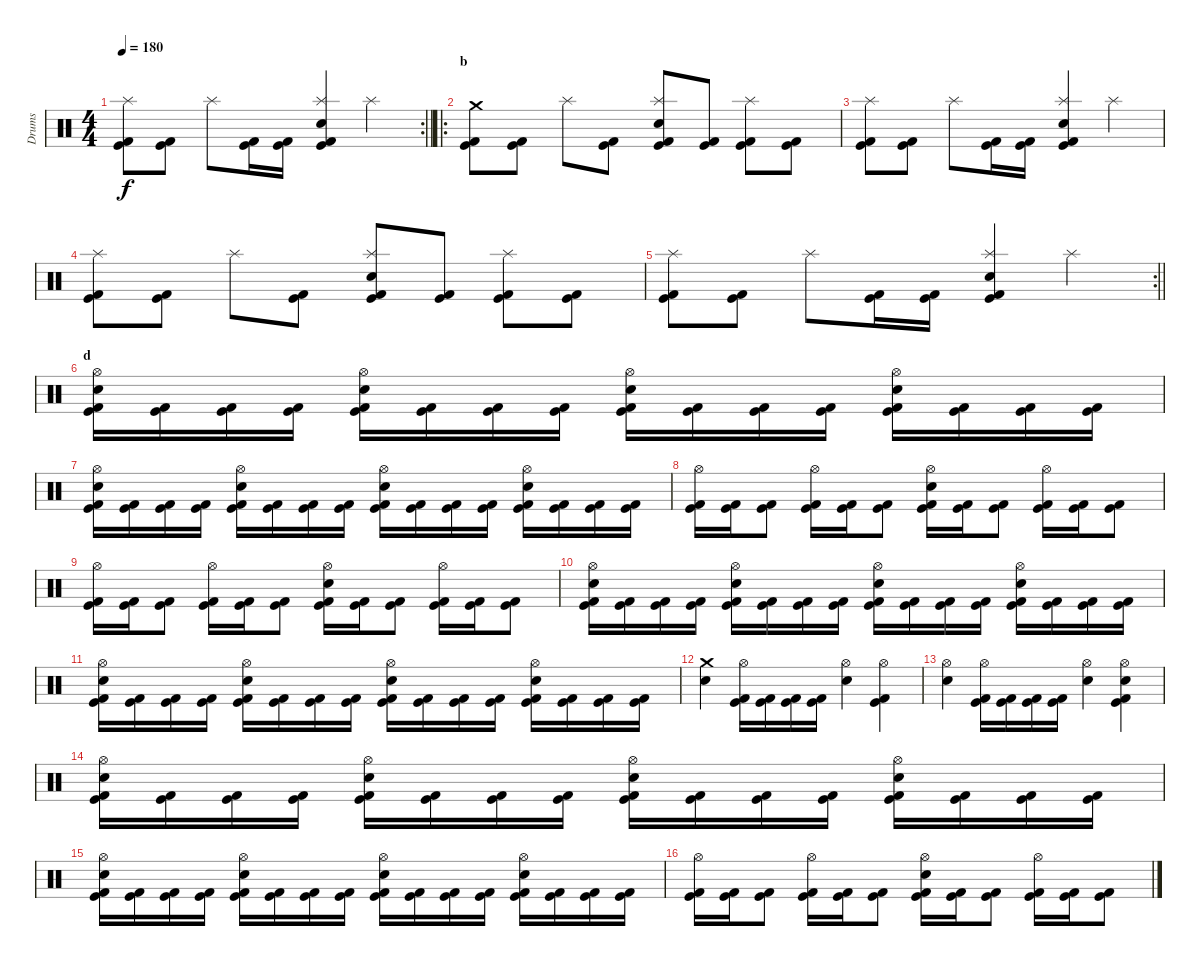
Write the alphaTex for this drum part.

\track ("Drums" "Drums") {instrument percussion}
\staff {score}
\articulation defaults
\rc 2
\ts (4 4)
\tempo 180
\clef neutral
\barLineRight lightlight
\ks c
("Kick (hit) 2" "Kick (hit)" "Splash (hit)").8{dy f} ("Kick (hit) 2" "Kick (hit)").8 "Splash (hit)".8 ("Kick (hit) 2" "Kick (hit)").16 ("Kick (hit) 2" "Kick (hit)").16 ("Kick (hit) 2" "Electric Snare (hit)" "Kick (hit)" "Splash (hit)").4 "Splash (hit)".4 |
\ro
\section ("" "b")
("Kick (hit) 2" "Kick (hit)" "Crash medium (hit)").8 ("Kick (hit) 2" "Kick (hit)").8 "Splash (hit)".8 ("Kick (hit) 2" "Kick (hit)").8 ("Kick (hit) 2" "Kick (hit)" "Splash (hit)" "Electric Snare (hit)").8 ("Kick (hit) 2" "Kick (hit)").8 ("Kick (hit) 2" "Kick (hit)" "Splash (hit)").8 ("Kick (hit) 2" "Kick (hit)").8 |
("Kick (hit) 2" "Kick (hit)" "Splash (hit)").8 ("Kick (hit) 2" "Kick (hit)").8 "Splash (hit)".8 ("Kick (hit) 2" "Kick (hit)").16 ("Kick (hit) 2" "Kick (hit)").16 ("Kick (hit) 2" "Electric Snare (hit)" "Kick (hit)" "Splash (hit)").4 "Splash (hit)".4 |
("Kick (hit) 2" "Kick (hit)" "Splash (hit)").8 ("Kick (hit) 2" "Kick (hit)").8 "Splash (hit)".8 ("Kick (hit) 2" "Kick (hit)").8 ("Kick (hit) 2" "Kick (hit)" "Splash (hit)" "Electric Snare (hit)").8 ("Kick (hit) 2" "Kick (hit)").8 ("Kick (hit) 2" "Kick (hit)" "Splash (hit)").8 ("Kick (hit) 2" "Kick (hit)").8 |
\rc 2
\barLineRight lightlight
("Kick (hit) 2" "Kick (hit)" "Splash (hit)").8 ("Kick (hit) 2" "Kick (hit)").8 "Splash (hit)".8 ("Kick (hit) 2" "Kick (hit)").16 ("Kick (hit) 2" "Kick (hit)").16 ("Kick (hit) 2" "Electric Snare (hit)" "Kick (hit)" "Splash (hit)").4 "Splash (hit)".4 |
\section ("" "d")
("Kick (hit)" "Kick (hit) 2" "Hi-Hat (open)" "Electric Snare (hit)").16 ("Kick (hit)" "Kick (hit) 2").16 ("Kick (hit)" "Kick (hit) 2").16 ("Kick (hit)" "Kick (hit) 2").16 ("Kick (hit)" "Kick (hit) 2" "Hi-Hat (open)" "Electric Snare (hit)").16 ("Kick (hit)" "Kick (hit) 2").16 ("Kick (hit)" "Kick (hit) 2").16 ("Kick (hit)" "Kick (hit) 2").16 ("Kick (hit)" "Kick (hit) 2" "Hi-Hat (open)" "Electric Snare (hit)").16 ("Kick (hit)" "Kick (hit) 2").16 ("Kick (hit)" "Kick (hit) 2").16 ("Kick (hit)" "Kick (hit) 2").16 ("Kick (hit)" "Kick (hit) 2" "Hi-Hat (open)" "Electric Snare (hit)").16 ("Kick (hit)" "Kick (hit) 2").16 ("Kick (hit)" "Kick (hit) 2").16 ("Kick (hit)" "Kick (hit) 2").16 |
("Kick (hit)" "Kick (hit) 2" "Hi-Hat (open)" "Electric Snare (hit)").16 ("Kick (hit)" "Kick (hit) 2").16 ("Kick (hit)" "Kick (hit) 2").16 ("Kick (hit)" "Kick (hit) 2").16 ("Kick (hit)" "Kick (hit) 2" "Hi-Hat (open)" "Electric Snare (hit)").16 ("Kick (hit)" "Kick (hit) 2").16 ("Kick (hit)" "Kick (hit) 2").16 ("Kick (hit)" "Kick (hit) 2").16 ("Kick (hit)" "Kick (hit) 2" "Hi-Hat (open)" "Electric Snare (hit)").16 ("Kick (hit)" "Kick (hit) 2").16 ("Kick (hit)" "Kick (hit) 2").16 ("Kick (hit)" "Kick (hit) 2").16 ("Kick (hit)" "Kick (hit) 2" "Hi-Hat (open)" "Electric Snare (hit)").16 ("Kick (hit)" "Kick (hit) 2").16 ("Kick (hit)" "Kick (hit) 2").16 ("Kick (hit)" "Kick (hit) 2").16 |
("Kick (hit) 2" "Kick (hit)" "Hi-Hat (open)").16 ("Kick (hit) 2" "Kick (hit)").16 ("Kick (hit) 2" "Kick (hit)").8 ("Kick (hit) 2" "Kick (hit)" "Hi-Hat (open)").16 ("Kick (hit) 2" "Kick (hit)").16 ("Kick (hit) 2" "Kick (hit)").8 ("Kick (hit) 2" "Kick (hit)" "Hi-Hat (open)" "Electric Snare (hit)").16 ("Kick (hit) 2" "Kick (hit)").16 ("Kick (hit) 2" "Kick (hit)").8 ("Kick (hit) 2" "Kick (hit)" "Hi-Hat (open)").16 ("Kick (hit) 2" "Kick (hit)").16 ("Kick (hit) 2" "Kick (hit)").8 |
("Kick (hit) 2" "Kick (hit)" "Hi-Hat (open)").16 ("Kick (hit) 2" "Kick (hit)").16 ("Kick (hit) 2" "Kick (hit)").8 ("Kick (hit) 2" "Kick (hit)" "Hi-Hat (open)").16 ("Kick (hit) 2" "Kick (hit)").16 ("Kick (hit) 2" "Kick (hit)").8 ("Kick (hit) 2" "Kick (hit)" "Hi-Hat (open)" "Electric Snare (hit)").16 ("Kick (hit) 2" "Kick (hit)").16 ("Kick (hit) 2" "Kick (hit)").8 ("Kick (hit) 2" "Kick (hit)" "Hi-Hat (open)").16 ("Kick (hit) 2" "Kick (hit)").16 ("Kick (hit) 2" "Kick (hit)").8 |
("Kick (hit)" "Kick (hit) 2" "Hi-Hat (open)" "Electric Snare (hit)").16 ("Kick (hit)" "Kick (hit) 2").16 ("Kick (hit)" "Kick (hit) 2").16 ("Kick (hit)" "Kick (hit) 2").16 ("Kick (hit)" "Kick (hit) 2" "Hi-Hat (open)" "Electric Snare (hit)").16 ("Kick (hit)" "Kick (hit) 2").16 ("Kick (hit)" "Kick (hit) 2").16 ("Kick (hit)" "Kick (hit) 2").16 ("Kick (hit)" "Kick (hit) 2" "Hi-Hat (open)" "Electric Snare (hit)").16 ("Kick (hit)" "Kick (hit) 2").16 ("Kick (hit)" "Kick (hit) 2").16 ("Kick (hit)" "Kick (hit) 2").16 ("Kick (hit)" "Kick (hit) 2" "Hi-Hat (open)" "Electric Snare (hit)").16 ("Kick (hit)" "Kick (hit) 2").16 ("Kick (hit)" "Kick (hit) 2").16 ("Kick (hit)" "Kick (hit) 2").16 |
("Kick (hit)" "Kick (hit) 2" "Hi-Hat (open)" "Electric Snare (hit)").16 ("Kick (hit)" "Kick (hit) 2").16 ("Kick (hit)" "Kick (hit) 2").16 ("Kick (hit)" "Kick (hit) 2").16 ("Kick (hit)" "Kick (hit) 2" "Hi-Hat (open)" "Electric Snare (hit)").16 ("Kick (hit)" "Kick (hit) 2").16 ("Kick (hit)" "Kick (hit) 2").16 ("Kick (hit)" "Kick (hit) 2").16 ("Kick (hit)" "Kick (hit) 2" "Hi-Hat (open)" "Electric Snare (hit)").16 ("Kick (hit)" "Kick (hit) 2").16 ("Kick (hit)" "Kick (hit) 2").16 ("Kick (hit)" "Kick (hit) 2").16 ("Kick (hit)" "Kick (hit) 2" "Hi-Hat (open)" "Electric Snare (hit)").16 ("Kick (hit)" "Kick (hit) 2").16 ("Kick (hit)" "Kick (hit) 2").16 ("Kick (hit)" "Kick (hit) 2").16 |
("Electric Snare (hit)" "Crash medium (hit)").4 ("Kick (hit) 2" "Hi-Hat (open)" "Kick (hit)").16 ("Kick (hit) 2" "Kick (hit)").16 ("Kick (hit) 2" "Kick (hit)").16 ("Kick (hit) 2" "Kick (hit)").16 ("Electric Snare (hit)" "Hi-Hat (open)").4 ("Kick (hit) 2" "Hi-Hat (open)" "Kick (hit)").4 |
("Electric Snare (hit)" "Hi-Hat (open)").4 ("Kick (hit) 2" "Hi-Hat (open)" "Kick (hit)").16 ("Kick (hit) 2" "Kick (hit)").16 ("Kick (hit) 2" "Kick (hit)").16 ("Kick (hit) 2" "Kick (hit)").16 ("Electric Snare (hit)" "Hi-Hat (open)").4 ("Kick (hit) 2" "Electric Snare (hit)" "Hi-Hat (open)" "Kick (hit)").4 |
("Kick (hit)" "Kick (hit) 2" "Hi-Hat (open)" "Electric Snare (hit)").16 ("Kick (hit)" "Kick (hit) 2").16 ("Kick (hit)" "Kick (hit) 2").16 ("Kick (hit)" "Kick (hit) 2").16 ("Kick (hit)" "Kick (hit) 2" "Hi-Hat (open)" "Electric Snare (hit)").16 ("Kick (hit)" "Kick (hit) 2").16 ("Kick (hit)" "Kick (hit) 2").16 ("Kick (hit)" "Kick (hit) 2").16 ("Kick (hit)" "Kick (hit) 2" "Hi-Hat (open)" "Electric Snare (hit)").16 ("Kick (hit)" "Kick (hit) 2").16 ("Kick (hit)" "Kick (hit) 2").16 ("Kick (hit)" "Kick (hit) 2").16 ("Kick (hit)" "Kick (hit) 2" "Hi-Hat (open)" "Electric Snare (hit)").16 ("Kick (hit)" "Kick (hit) 2").16 ("Kick (hit)" "Kick (hit) 2").16 ("Kick (hit)" "Kick (hit) 2").16 |
("Kick (hit)" "Kick (hit) 2" "Hi-Hat (open)" "Electric Snare (hit)").16 ("Kick (hit)" "Kick (hit) 2").16 ("Kick (hit)" "Kick (hit) 2").16 ("Kick (hit)" "Kick (hit) 2").16 ("Kick (hit)" "Kick (hit) 2" "Hi-Hat (open)" "Electric Snare (hit)").16 ("Kick (hit)" "Kick (hit) 2").16 ("Kick (hit)" "Kick (hit) 2").16 ("Kick (hit)" "Kick (hit) 2").16 ("Kick (hit)" "Kick (hit) 2" "Hi-Hat (open)" "Electric Snare (hit)").16 ("Kick (hit)" "Kick (hit) 2").16 ("Kick (hit)" "Kick (hit) 2").16 ("Kick (hit)" "Kick (hit) 2").16 ("Kick (hit)" "Kick (hit) 2" "Hi-Hat (open)" "Electric Snare (hit)").16 ("Kick (hit)" "Kick (hit) 2").16 ("Kick (hit)" "Kick (hit) 2").16 ("Kick (hit)" "Kick (hit) 2").16 |
("Kick (hit) 2" "Kick (hit)" "Hi-Hat (open)").16 ("Kick (hit) 2" "Kick (hit)").16 ("Kick (hit) 2" "Kick (hit)").8 ("Kick (hit) 2" "Kick (hit)" "Hi-Hat (open)").16 ("Kick (hit) 2" "Kick (hit)").16 ("Kick (hit) 2" "Kick (hit)").8 ("Kick (hit) 2" "Kick (hit)" "Hi-Hat (open)" "Electric Snare (hit)").16 ("Kick (hit) 2" "Kick (hit)").16 ("Kick (hit) 2" "Kick (hit)").8 ("Kick (hit) 2" "Kick (hit)" "Hi-Hat (open)").16 ("Kick (hit) 2" "Kick (hit)").16 ("Kick (hit) 2" "Kick (hit)").8
